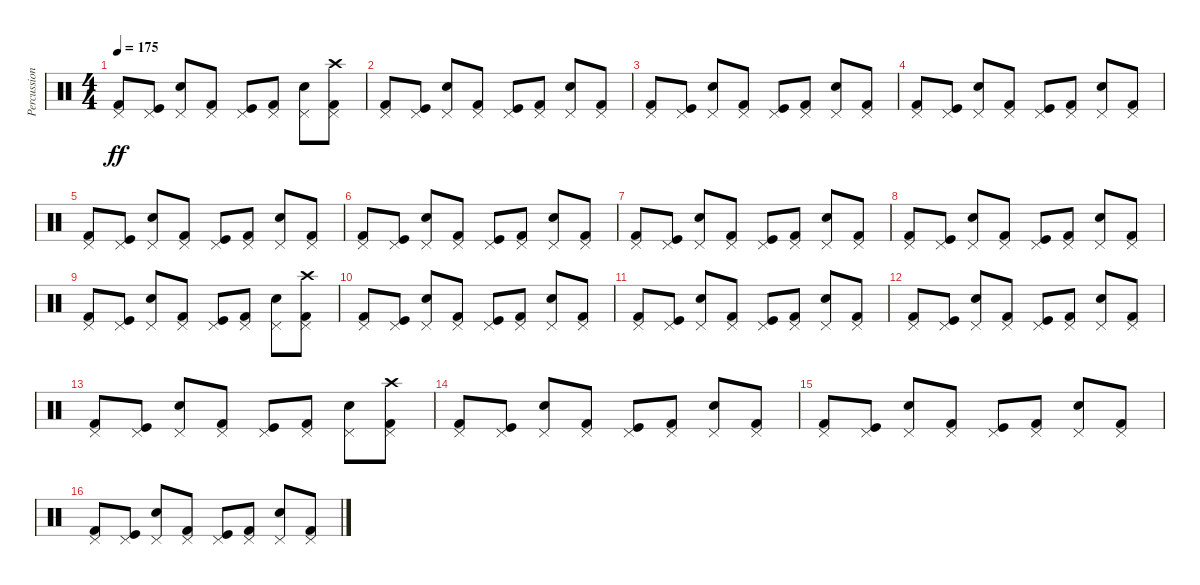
\track ("Percussion (Karlo Žuliæ)" "Percussion") {instrument percussion}
\staff {score}
\articulation defaults
\ts (4 4)
\tempo 175
\clef neutral
\ks c
("Pedal Hi-Hat (hit)" "Kick (hit) 2").8{dy ff} ("Pedal Hi-Hat (hit)" "Kick (hit)").8 ("Pedal Hi-Hat (hit)" "Snare (hit) 2").8 ("Pedal Hi-Hat (hit)" "Kick (hit) 2").8 ("Pedal Hi-Hat (hit)" "Kick (hit)").8 ("Pedal Hi-Hat (hit)" "Kick (hit) 2").8 ("Pedal Hi-Hat (hit)" "Snare (hit) 2").8 ("Pedal Hi-Hat (hit)" "Kick (hit) 2" "Crash high (hit)").8 |
("Pedal Hi-Hat (hit)" "Kick (hit) 2").8 ("Pedal Hi-Hat (hit)" "Kick (hit)").8 ("Pedal Hi-Hat (hit)" "Snare (hit) 2").8 ("Pedal Hi-Hat (hit)" "Kick (hit) 2").8 ("Pedal Hi-Hat (hit)" "Kick (hit)").8 ("Pedal Hi-Hat (hit)" "Kick (hit) 2").8 ("Pedal Hi-Hat (hit)" "Snare (hit) 2").8 ("Pedal Hi-Hat (hit)" "Kick (hit) 2").8 |
("Pedal Hi-Hat (hit)" "Kick (hit) 2").8 ("Pedal Hi-Hat (hit)" "Kick (hit)").8 ("Pedal Hi-Hat (hit)" "Snare (hit) 2").8 ("Pedal Hi-Hat (hit)" "Kick (hit) 2").8 ("Pedal Hi-Hat (hit)" "Kick (hit)").8 ("Pedal Hi-Hat (hit)" "Kick (hit) 2").8 ("Pedal Hi-Hat (hit)" "Snare (hit) 2").8 ("Pedal Hi-Hat (hit)" "Kick (hit) 2").8 |
("Pedal Hi-Hat (hit)" "Kick (hit) 2").8 ("Pedal Hi-Hat (hit)" "Kick (hit)").8 ("Pedal Hi-Hat (hit)" "Snare (hit) 2").8 ("Pedal Hi-Hat (hit)" "Kick (hit) 2").8 ("Pedal Hi-Hat (hit)" "Kick (hit)").8 ("Pedal Hi-Hat (hit)" "Kick (hit) 2").8 ("Pedal Hi-Hat (hit)" "Snare (hit) 2").8 ("Pedal Hi-Hat (hit)" "Kick (hit) 2").8 |
("Pedal Hi-Hat (hit)" "Kick (hit) 2").8 ("Pedal Hi-Hat (hit)" "Kick (hit)").8 ("Pedal Hi-Hat (hit)" "Snare (hit) 2").8 ("Pedal Hi-Hat (hit)" "Kick (hit) 2").8 ("Pedal Hi-Hat (hit)" "Kick (hit)").8 ("Pedal Hi-Hat (hit)" "Kick (hit) 2").8 ("Pedal Hi-Hat (hit)" "Snare (hit) 2").8 ("Pedal Hi-Hat (hit)" "Kick (hit) 2").8 |
("Pedal Hi-Hat (hit)" "Kick (hit) 2").8 ("Pedal Hi-Hat (hit)" "Kick (hit)").8 ("Pedal Hi-Hat (hit)" "Snare (hit) 2").8 ("Pedal Hi-Hat (hit)" "Kick (hit) 2").8 ("Pedal Hi-Hat (hit)" "Kick (hit)").8 ("Pedal Hi-Hat (hit)" "Kick (hit) 2").8 ("Pedal Hi-Hat (hit)" "Snare (hit) 2").8 ("Pedal Hi-Hat (hit)" "Kick (hit) 2").8 |
("Pedal Hi-Hat (hit)" "Kick (hit) 2").8 ("Pedal Hi-Hat (hit)" "Kick (hit)").8 ("Pedal Hi-Hat (hit)" "Snare (hit) 2").8 ("Pedal Hi-Hat (hit)" "Kick (hit) 2").8 ("Pedal Hi-Hat (hit)" "Kick (hit)").8 ("Pedal Hi-Hat (hit)" "Kick (hit) 2").8 ("Pedal Hi-Hat (hit)" "Snare (hit) 2").8 ("Pedal Hi-Hat (hit)" "Kick (hit) 2").8 |
("Pedal Hi-Hat (hit)" "Kick (hit) 2").8 ("Pedal Hi-Hat (hit)" "Kick (hit)").8 ("Pedal Hi-Hat (hit)" "Snare (hit) 2").8 ("Pedal Hi-Hat (hit)" "Kick (hit) 2").8 ("Pedal Hi-Hat (hit)" "Kick (hit)").8 ("Pedal Hi-Hat (hit)" "Kick (hit) 2").8 ("Pedal Hi-Hat (hit)" "Snare (hit) 2").8 ("Pedal Hi-Hat (hit)" "Kick (hit) 2").8 |
("Pedal Hi-Hat (hit)" "Kick (hit) 2").8 ("Pedal Hi-Hat (hit)" "Kick (hit)").8 ("Pedal Hi-Hat (hit)" "Snare (hit) 2").8 ("Pedal Hi-Hat (hit)" "Kick (hit) 2").8 ("Pedal Hi-Hat (hit)" "Kick (hit)").8 ("Pedal Hi-Hat (hit)" "Kick (hit) 2").8 ("Pedal Hi-Hat (hit)" "Snare (hit) 2").8 ("Pedal Hi-Hat (hit)" "Kick (hit) 2" "Crash high (hit)").8 |
("Pedal Hi-Hat (hit)" "Kick (hit) 2").8 ("Pedal Hi-Hat (hit)" "Kick (hit)").8 ("Pedal Hi-Hat (hit)" "Snare (hit) 2").8 ("Pedal Hi-Hat (hit)" "Kick (hit) 2").8 ("Pedal Hi-Hat (hit)" "Kick (hit)").8 ("Pedal Hi-Hat (hit)" "Kick (hit) 2").8 ("Pedal Hi-Hat (hit)" "Snare (hit) 2").8 ("Pedal Hi-Hat (hit)" "Kick (hit) 2").8 |
("Pedal Hi-Hat (hit)" "Kick (hit) 2").8 ("Pedal Hi-Hat (hit)" "Kick (hit)").8 ("Pedal Hi-Hat (hit)" "Snare (hit) 2").8 ("Pedal Hi-Hat (hit)" "Kick (hit) 2").8 ("Pedal Hi-Hat (hit)" "Kick (hit)").8 ("Pedal Hi-Hat (hit)" "Kick (hit) 2").8 ("Pedal Hi-Hat (hit)" "Snare (hit) 2").8 ("Pedal Hi-Hat (hit)" "Kick (hit) 2").8 |
("Pedal Hi-Hat (hit)" "Kick (hit) 2").8 ("Pedal Hi-Hat (hit)" "Kick (hit)").8 ("Pedal Hi-Hat (hit)" "Snare (hit) 2").8 ("Pedal Hi-Hat (hit)" "Kick (hit) 2").8 ("Pedal Hi-Hat (hit)" "Kick (hit)").8 ("Pedal Hi-Hat (hit)" "Kick (hit) 2").8 ("Pedal Hi-Hat (hit)" "Snare (hit) 2").8 ("Pedal Hi-Hat (hit)" "Kick (hit) 2").8 |
("Pedal Hi-Hat (hit)" "Kick (hit) 2").8 ("Pedal Hi-Hat (hit)" "Kick (hit)").8 ("Pedal Hi-Hat (hit)" "Snare (hit) 2").8 ("Pedal Hi-Hat (hit)" "Kick (hit) 2").8 ("Pedal Hi-Hat (hit)" "Kick (hit)").8 ("Pedal Hi-Hat (hit)" "Kick (hit) 2").8 ("Pedal Hi-Hat (hit)" "Snare (hit) 2").8 ("Pedal Hi-Hat (hit)" "Kick (hit) 2" "Crash high (hit)").8 |
("Pedal Hi-Hat (hit)" "Kick (hit) 2").8 ("Pedal Hi-Hat (hit)" "Kick (hit)").8 ("Pedal Hi-Hat (hit)" "Snare (hit) 2").8 ("Pedal Hi-Hat (hit)" "Kick (hit) 2").8 ("Pedal Hi-Hat (hit)" "Kick (hit)").8 ("Pedal Hi-Hat (hit)" "Kick (hit) 2").8 ("Pedal Hi-Hat (hit)" "Snare (hit) 2").8 ("Pedal Hi-Hat (hit)" "Kick (hit) 2").8 |
("Pedal Hi-Hat (hit)" "Kick (hit) 2").8 ("Pedal Hi-Hat (hit)" "Kick (hit)").8 ("Pedal Hi-Hat (hit)" "Snare (hit) 2").8 ("Pedal Hi-Hat (hit)" "Kick (hit) 2").8 ("Pedal Hi-Hat (hit)" "Kick (hit)").8 ("Pedal Hi-Hat (hit)" "Kick (hit) 2").8 ("Pedal Hi-Hat (hit)" "Snare (hit) 2").8 ("Pedal Hi-Hat (hit)" "Kick (hit) 2").8 |
("Pedal Hi-Hat (hit)" "Kick (hit) 2").8 ("Pedal Hi-Hat (hit)" "Kick (hit)").8 ("Pedal Hi-Hat (hit)" "Snare (hit) 2").8 ("Pedal Hi-Hat (hit)" "Kick (hit) 2").8 ("Pedal Hi-Hat (hit)" "Kick (hit)").8 ("Pedal Hi-Hat (hit)" "Kick (hit) 2").8 ("Pedal Hi-Hat (hit)" "Snare (hit) 2").8 ("Pedal Hi-Hat (hit)" "Kick (hit) 2").8
